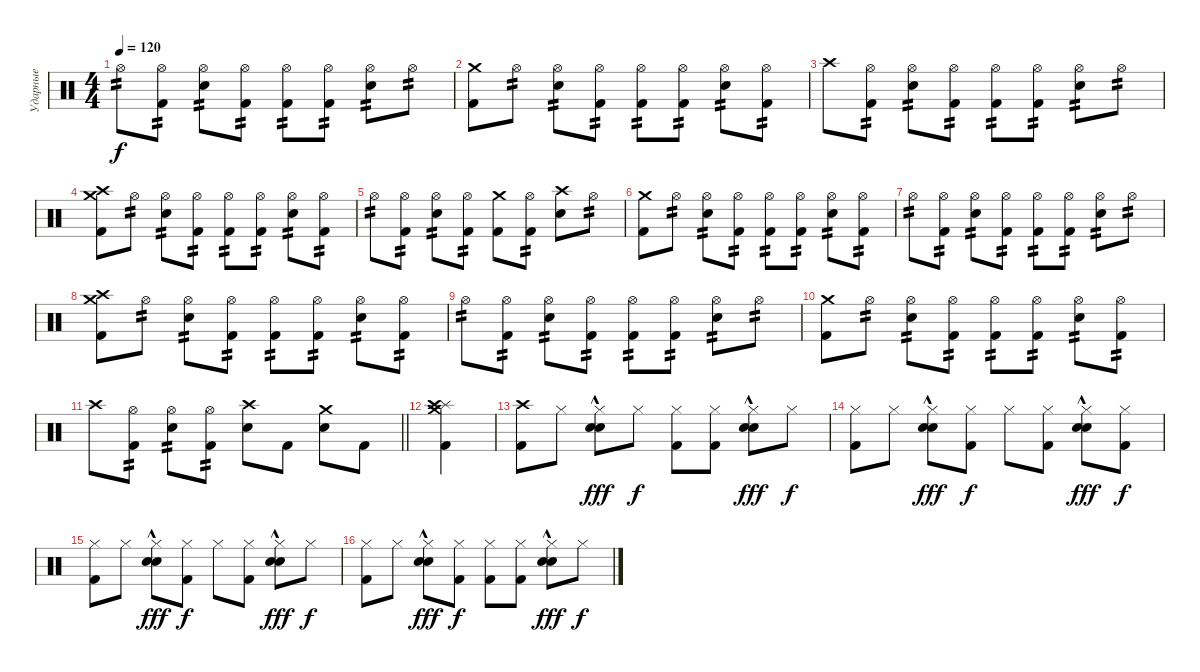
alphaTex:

\track ("Ударные" "Ударные") {instrument percussion}
\staff {score}
\articulation defaults
\ts (4 4)
\tempo 120
\clef neutral
\ks c "Hi-Hat (open)".8{tp 2 dy f}
("Hi-Hat (open)" "Kick (hit) 2").8{tp 2} ("Hi-Hat (open)" "Electric Snare (hit)").8{tp 2} ("Hi-Hat (open)" "Kick (hit) 2").8{tp 2} ("Hi-Hat (open)" "Kick (hit) 2").8{tp 2} ("Hi-Hat (open)" "Kick (hit) 2").8{tp 2} ("Hi-Hat (open)" "Electric Snare (hit)").8{tp 2} "Hi-Hat (open)".8{tp 2} |
("Crash medium (hit)" "Kick (hit) 2").8 "Hi-Hat (open)".8{tp 2} ("Hi-Hat (open)" "Electric Snare (hit)").8{tp 2} ("Hi-Hat (open)" "Kick (hit) 2").8{tp 2} ("Hi-Hat (open)" "Kick (hit) 2").8{tp 2} ("Hi-Hat (open)" "Kick (hit) 2").8{tp 2} ("Hi-Hat (open)" "Electric Snare (hit)").8{tp 2} ("Hi-Hat (open)" "Kick (hit) 2").8{tp 2} |
"Crash high (hit)".8 ("Hi-Hat (open)" "Kick (hit) 2").8{tp 2} ("Hi-Hat (open)" "Electric Snare (hit)").8{tp 2} ("Hi-Hat (open)" "Kick (hit) 2").8{tp 2} ("Hi-Hat (open)" "Kick (hit) 2").8{tp 2} ("Hi-Hat (open)" "Kick (hit) 2").8{tp 2} ("Hi-Hat (open)" "Electric Snare (hit)").8{tp 2} "Hi-Hat (open)".8{tp 2} |
("Crash high (hit)" "Crash medium (hit)" "Kick (hit) 2").8 "Hi-Hat (open)".8{tp 2} ("Hi-Hat (open)" "Electric Snare (hit)").8{tp 2} ("Hi-Hat (open)" "Kick (hit) 2").8{tp 2} ("Hi-Hat (open)" "Kick (hit) 2").8{tp 2} ("Hi-Hat (open)" "Kick (hit) 2").8{tp 2} ("Hi-Hat (open)" "Electric Snare (hit)").8{tp 2} ("Hi-Hat (open)" "Kick (hit) 2").8{tp 2} |
"Hi-Hat (open)".8{tp 2} ("Hi-Hat (open)" "Kick (hit) 2").8{tp 2} ("Hi-Hat (open)" "Electric Snare (hit)").8{tp 2} ("Hi-Hat (open)" "Kick (hit) 2").8{tp 2} ("Crash medium (hit)" "Kick (hit) 2").8 ("Hi-Hat (open)" "Kick (hit) 2").8{tp 2} ("Crash high (hit)" "Electric Snare (hit)").8 "Hi-Hat (open)".8{tp 2} |
("Crash medium (hit)" "Kick (hit) 2").8 "Hi-Hat (open)".8{tp 2} ("Hi-Hat (open)" "Electric Snare (hit)").8{tp 2} ("Hi-Hat (open)" "Kick (hit) 2").8{tp 2} ("Hi-Hat (open)" "Kick (hit) 2").8{tp 2} ("Hi-Hat (open)" "Kick (hit) 2").8{tp 2} ("Hi-Hat (open)" "Electric Snare (hit)").8{tp 2} ("Hi-Hat (open)" "Kick (hit) 2").8{tp 2} |
"Hi-Hat (open)".8{tp 2} ("Hi-Hat (open)" "Kick (hit) 2").8{tp 2} ("Hi-Hat (open)" "Electric Snare (hit)").8{tp 2} ("Hi-Hat (open)" "Kick (hit) 2").8{tp 2} ("Hi-Hat (open)" "Kick (hit) 2").8{tp 2} ("Hi-Hat (open)" "Kick (hit) 2").8{tp 2} ("Hi-Hat (open)" "Electric Snare (hit)").8{tp 2} "Hi-Hat (open)".8{tp 2} |
("Crash high (hit)" "Crash medium (hit)" "Kick (hit) 2").8 "Hi-Hat (open)".8{tp 2} ("Hi-Hat (open)" "Electric Snare (hit)").8{tp 2} ("Hi-Hat (open)" "Kick (hit) 2").8{tp 2} ("Hi-Hat (open)" "Kick (hit) 2").8{tp 2} ("Hi-Hat (open)" "Kick (hit) 2").8{tp 2} ("Hi-Hat (open)" "Electric Snare (hit)").8{tp 2} ("Hi-Hat (open)" "Kick (hit) 2").8{tp 2} |
"Hi-Hat (open)".8{tp 2} ("Hi-Hat (open)" "Kick (hit) 2").8{tp 2} ("Hi-Hat (open)" "Electric Snare (hit)").8{tp 2} ("Hi-Hat (open)" "Kick (hit) 2").8{tp 2} ("Hi-Hat (open)" "Kick (hit) 2").8{tp 2} ("Hi-Hat (open)" "Kick (hit) 2").8{tp 2} ("Hi-Hat (open)" "Electric Snare (hit)").8{tp 2} "Hi-Hat (open)".8{tp 2} |
("Crash medium (hit)" "Kick (hit) 2").8 "Hi-Hat (open)".8{tp 2} ("Hi-Hat (open)" "Electric Snare (hit)").8{tp 2} ("Hi-Hat (open)" "Kick (hit) 2").8{tp 2} ("Hi-Hat (open)" "Kick (hit) 2").8{tp 2} ("Hi-Hat (open)" "Kick (hit) 2").8{tp 2} ("Hi-Hat (open)" "Electric Snare (hit)").8{tp 2} ("Hi-Hat (open)" "Kick (hit) 2").8{tp 2} |
\barLineRight lightlight "Crash high (hit)".8
("Hi-Hat (open)" "Kick (hit) 2").8{tp 2} ("Hi-Hat (open)" "Electric Snare (hit)").8{tp 2} ("Hi-Hat (open)" "Kick (hit) 2").8{tp 2} ("Crash high (hit)" "Electric Snare (hit)").8 "Kick (hit) 2".8 ("Crash medium (hit)" "Electric Snare (hit)").8 "Kick (hit) 2".8 |
("Splash (hit)" "Crash medium (hit)" "Crash high (hit)" "Kick (hit) 2").4 |
("Crash high (hit)" "Kick (hit) 2").8 "Hi-Hat (closed)".8 ("Hi-Hat (closed)" "Electric Snare (hit)" "Hand Clap (hit)"{hac}).8{dy fff} "Hi-Hat (closed)".8{dy f} ("Hi-Hat (closed)" "Kick (hit) 2").8 ("Hi-Hat (closed)" "Kick (hit) 2").8 ("Hi-Hat (closed)" "Electric Snare (hit)" "Hand Clap (hit)"{hac}).8{dy fff} "Hi-Hat (closed)".8{dy f} |
("Hi-Hat (closed)" "Kick (hit) 2").8 "Hi-Hat (closed)".8 ("Hi-Hat (closed)" "Electric Snare (hit)" "Hand Clap (hit)"{hac}).8{dy fff} ("Hi-Hat (closed)" "Kick (hit) 2").8{dy f} "Hi-Hat (closed)".8 ("Hi-Hat (closed)" "Kick (hit) 2").8 ("Hi-Hat (closed)" "Electric Snare (hit)" "Hand Clap (hit)"{hac}).8{dy fff} ("Hi-Hat (closed)" "Kick (hit) 2").8{dy f} |
("Hi-Hat (closed)" "Kick (hit) 2").8 "Hi-Hat (closed)".8 ("Hi-Hat (closed)" "Electric Snare (hit)" "Hand Clap (hit)"{hac}).8{dy fff} ("Hi-Hat (closed)" "Kick (hit) 2").8{dy f} "Hi-Hat (closed)".8 ("Hi-Hat (closed)" "Kick (hit) 2").8 ("Hi-Hat (closed)" "Electric Snare (hit)" "Hand Clap (hit)"{hac}).8{dy fff} "Hi-Hat (closed)".8{dy f} |
("Hi-Hat (closed)" "Kick (hit) 2").8 "Hi-Hat (closed)".8 ("Hi-Hat (closed)" "Electric Snare (hit)" "Hand Clap (hit)"{hac}).8{dy fff} ("Hi-Hat (closed)" "Kick (hit) 2").8{dy f} ("Hi-Hat (closed)" "Kick (hit) 2").8 ("Hi-Hat (closed)" "Kick (hit) 2").8 ("Hi-Hat (closed)" "Electric Snare (hit)" "Hand Clap (hit)"{hac}).8{dy fff} "Hi-Hat (closed)".8{dy f}
